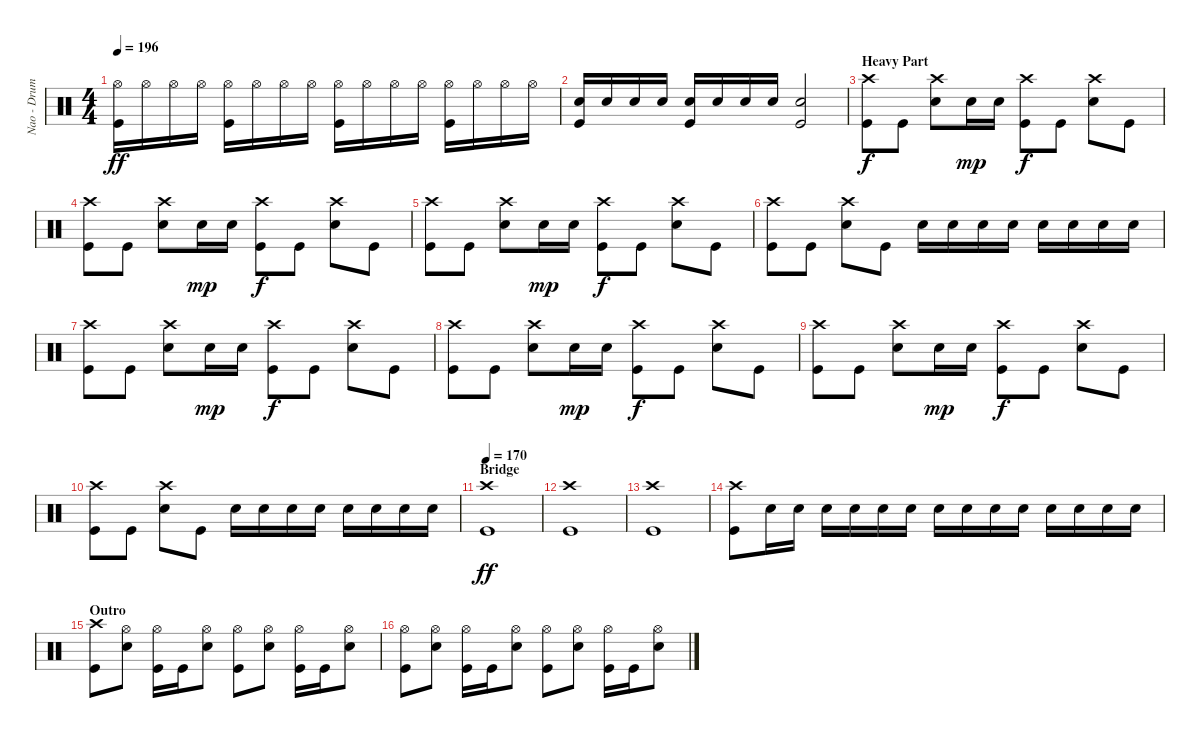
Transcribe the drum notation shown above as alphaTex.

\track ("Nao - Drums" "Nao - Drum") {instrument percussion}
\staff {score}
\articulation defaults
\ts (4 4)
\tempo 196
\clef neutral
\ks c
("Hi-Hat (open)" "Kick (hit)").16{dy ff} "Hi-Hat (open)".16 "Hi-Hat (open)".16 "Hi-Hat (open)".16 ("Hi-Hat (open)" "Kick (hit)").16 "Hi-Hat (open)".16 "Hi-Hat (open)".16 "Hi-Hat (open)".16 ("Hi-Hat (open)" "Kick (hit)").16 "Hi-Hat (open)".16 "Hi-Hat (open)".16 "Hi-Hat (open)".16 ("Hi-Hat (open)" "Kick (hit)").16 "Hi-Hat (open)".16 "Hi-Hat (open)".16 "Hi-Hat (open)".16 |
("Snare (hit) 2" "Kick (hit)").16 "Snare (hit) 2".16 "Snare (hit) 2".16 "Snare (hit) 2".16 ("Snare (hit) 2" "Kick (hit)").16 "Snare (hit) 2".16 "Snare (hit) 2".16 "Snare (hit) 2".16 ("Snare (hit) 2" "Kick (hit)").2 |
\section ("" "Heavy Part")
("Crash high (hit)" "Kick (hit)").8{dy f} "Kick (hit)".8 ("Snare (hit) 2" "Crash high (hit)").8 "Snare (hit) 2".16{dy mp} "Snare (hit) 2".16 ("Kick (hit)" "Crash high (hit)").8{dy f} "Kick (hit)".8 ("Snare (hit) 2" "Crash high (hit)").8 "Kick (hit)".8 |
("Crash high (hit)" "Kick (hit)").8 "Kick (hit)".8 ("Snare (hit) 2" "Crash high (hit)").8 "Snare (hit) 2".16{dy mp} "Snare (hit) 2".16 ("Kick (hit)" "Crash high (hit)").8{dy f} "Kick (hit)".8 ("Snare (hit) 2" "Crash high (hit)").8 "Kick (hit)".8 |
("Crash high (hit)" "Kick (hit)").8 "Kick (hit)".8 ("Snare (hit) 2" "Crash high (hit)").8 "Snare (hit) 2".16{dy mp} "Snare (hit) 2".16 ("Kick (hit)" "Crash high (hit)").8{dy f} "Kick (hit)".8 ("Snare (hit) 2" "Crash high (hit)").8 "Kick (hit)".8 |
("Crash high (hit)" "Kick (hit)").8 "Kick (hit)".8 ("Snare (hit) 2" "Crash high (hit)").8 "Kick (hit)".8 "Snare (hit) 2".16 "Snare (hit) 2".16 "Snare (hit) 2".16 "Snare (hit) 2".16 "Snare (hit) 2".16 "Snare (hit) 2".16 "Snare (hit) 2".16 "Snare (hit) 2".16 |
("Crash high (hit)" "Kick (hit)").8 "Kick (hit)".8 ("Snare (hit) 2" "Crash high (hit)").8 "Snare (hit) 2".16{dy mp} "Snare (hit) 2".16 ("Kick (hit)" "Crash high (hit)").8{dy f} "Kick (hit)".8 ("Snare (hit) 2" "Crash high (hit)").8 "Kick (hit)".8 |
("Crash high (hit)" "Kick (hit)").8 "Kick (hit)".8 ("Snare (hit) 2" "Crash high (hit)").8 "Snare (hit) 2".16{dy mp} "Snare (hit) 2".16 ("Kick (hit)" "Crash high (hit)").8{dy f} "Kick (hit)".8 ("Snare (hit) 2" "Crash high (hit)").8 "Kick (hit)".8 |
("Crash high (hit)" "Kick (hit)").8 "Kick (hit)".8 ("Snare (hit) 2" "Crash high (hit)").8 "Snare (hit) 2".16{dy mp} "Snare (hit) 2".16 ("Kick (hit)" "Crash high (hit)").8{dy f} "Kick (hit)".8 ("Snare (hit) 2" "Crash high (hit)").8 "Kick (hit)".8 |
("Crash high (hit)" "Kick (hit)").8 "Kick (hit)".8 ("Snare (hit) 2" "Crash high (hit)").8 "Kick (hit)".8 "Snare (hit) 2".16 "Snare (hit) 2".16 "Snare (hit) 2".16 "Snare (hit) 2".16 "Snare (hit) 2".16 "Snare (hit) 2".16 "Snare (hit) 2".16 "Snare (hit) 2".16 |
\section ("" "Bridge")
\tempo 170
("Crash high (hit)" "Kick (hit)").1{dy ff} |
("Crash high (hit)" "Kick (hit)").1 |
("Crash high (hit)" "Kick (hit)").1 |
("Crash high (hit)" "Kick (hit)").8 "Snare (hit) 2".16 "Snare (hit) 2".16 "Snare (hit) 2".16 "Snare (hit) 2".16 "Snare (hit) 2".16 "Snare (hit) 2".16 "Snare (hit) 2".16 "Snare (hit) 2".16 "Snare (hit) 2".16 "Snare (hit) 2".16 "Snare (hit) 2".16 "Snare (hit) 2".16 "Snare (hit) 2".16 "Snare (hit) 2".16 |
\section ("" "Outro")
("Kick (hit)" "Crash high (hit)").8 ("Snare (hit) 2" "Hi-Hat (open)").8 ("Hi-Hat (open)" "Kick (hit)").16 "Kick (hit)".16 ("Hi-Hat (open)" "Snare (hit) 2").8 ("Hi-Hat (open)" "Kick (hit)").8 ("Snare (hit) 2" "Hi-Hat (open)").8 ("Hi-Hat (open)" "Kick (hit)").16 "Kick (hit)".16 ("Hi-Hat (open)" "Snare (hit) 2").8 |
("Hi-Hat (open)" "Kick (hit)").8 ("Snare (hit) 2" "Hi-Hat (open)").8 ("Hi-Hat (open)" "Kick (hit)").16 "Kick (hit)".16 ("Hi-Hat (open)" "Snare (hit) 2").8 ("Hi-Hat (open)" "Kick (hit)").8 ("Snare (hit) 2" "Hi-Hat (open)").8 ("Hi-Hat (open)" "Kick (hit)").16 "Kick (hit)".16 ("Hi-Hat (open)" "Snare (hit) 2").8
